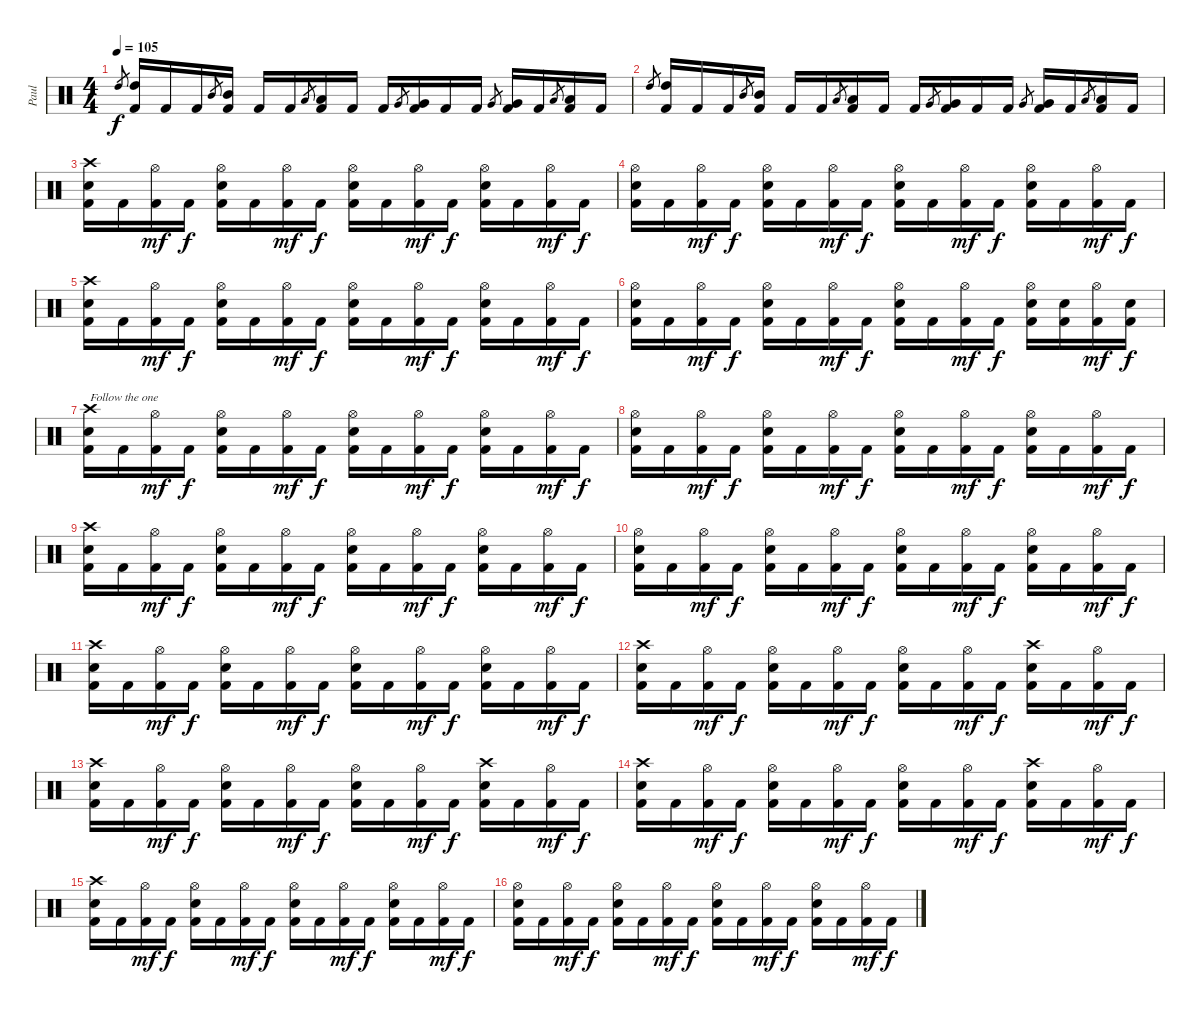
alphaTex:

\track ("Paul" "Paul") {instrument percussion}
\staff {score}
\articulation defaults
\ts (4 4)
\tempo 105
\clef neutral
\ks c "High Tom (hit)".8{gr dy f}
("High Tom (hit)" "Kick (hit) 2").16 "Kick (hit) 2".16 "Kick (hit) 2".16 "Mid Tom (hit)".8{gr} ("Mid Tom (hit)" "Kick (hit) 2").16 "Kick (hit) 2".16 "Kick (hit) 2".16 "Low Tom (hit)".8{gr} ("Low Tom (hit)" "Kick (hit) 2").16 "Kick (hit) 2".16 "Kick (hit) 2".16 "Very Low Tom (hit)".8{gr} ("Very Low Tom (hit)" "Kick (hit) 2").16 "Kick (hit) 2".16 "Kick (hit) 2".16 "Very Low Tom (hit)".8{gr} ("Very Low Tom (hit)" "Kick (hit) 2").16 "Kick (hit) 2".16 "Low Floor Tom (hit)".8{gr} ("Low Floor Tom (hit)" "Kick (hit) 2").16 "Kick (hit) 2".16 |
"High Tom (hit)".8{gr} ("High Tom (hit)" "Kick (hit) 2").16 "Kick (hit) 2".16 "Kick (hit) 2".16 "Mid Tom (hit)".8{gr} ("Mid Tom (hit)" "Kick (hit) 2").16 "Kick (hit) 2".16 "Kick (hit) 2".16 "Low Tom (hit)".8{gr} ("Low Tom (hit)" "Kick (hit) 2").16 "Kick (hit) 2".16 "Kick (hit) 2".16 "Very Low Tom (hit)".8{gr} ("Very Low Tom (hit)" "Kick (hit) 2").16 "Kick (hit) 2".16 "Kick (hit) 2".16 "Very Low Tom (hit)".8{gr} ("Very Low Tom (hit)" "Kick (hit) 2").16 "Kick (hit) 2".16 "Low Floor Tom (hit)".8{gr} ("Low Floor Tom (hit)" "Kick (hit) 2").16 "Kick (hit) 2".16 |
("Crash high (hit)" "Electric Snare (hit)" "Kick (hit) 2").16 "Kick (hit) 2".16 ("Hi-Hat (open)" "Kick (hit) 2").16{dy mf} "Kick (hit) 2".16{dy f} ("Hi-Hat (open)" "Electric Snare (hit)" "Kick (hit) 2").16 "Kick (hit) 2".16 ("Hi-Hat (open)" "Kick (hit) 2").16{dy mf} "Kick (hit) 2".16{dy f} ("Hi-Hat (open)" "Electric Snare (hit)" "Kick (hit) 2").16 "Kick (hit) 2".16 ("Hi-Hat (open)" "Kick (hit) 2").16{dy mf} "Kick (hit) 2".16{dy f} ("Hi-Hat (open)" "Electric Snare (hit)" "Kick (hit) 2").16 "Kick (hit) 2".16 ("Hi-Hat (open)" "Kick (hit) 2").16{dy mf} "Kick (hit) 2".16{dy f} |
("Hi-Hat (open)" "Electric Snare (hit)" "Kick (hit) 2").16 "Kick (hit) 2".16 ("Hi-Hat (open)" "Kick (hit) 2").16{dy mf} "Kick (hit) 2".16{dy f} ("Hi-Hat (open)" "Electric Snare (hit)" "Kick (hit) 2").16 "Kick (hit) 2".16 ("Hi-Hat (open)" "Kick (hit) 2").16{dy mf} "Kick (hit) 2".16{dy f} ("Hi-Hat (open)" "Electric Snare (hit)" "Kick (hit) 2").16 "Kick (hit) 2".16 ("Hi-Hat (open)" "Kick (hit) 2").16{dy mf} "Kick (hit) 2".16{dy f} ("Hi-Hat (open)" "Electric Snare (hit)" "Kick (hit) 2").16 "Kick (hit) 2".16 ("Hi-Hat (open)" "Kick (hit) 2").16{dy mf} "Kick (hit) 2".16{dy f} |
("Crash high (hit)" "Electric Snare (hit)" "Kick (hit) 2").16 "Kick (hit) 2".16 ("Hi-Hat (open)" "Kick (hit) 2").16{dy mf} "Kick (hit) 2".16{dy f} ("Hi-Hat (open)" "Electric Snare (hit)" "Kick (hit) 2").16 "Kick (hit) 2".16 ("Hi-Hat (open)" "Kick (hit) 2").16{dy mf} "Kick (hit) 2".16{dy f} ("Hi-Hat (open)" "Electric Snare (hit)" "Kick (hit) 2").16 "Kick (hit) 2".16 ("Hi-Hat (open)" "Kick (hit) 2").16{dy mf} "Kick (hit) 2".16{dy f} ("Hi-Hat (open)" "Electric Snare (hit)" "Kick (hit) 2").16 "Kick (hit) 2".16 ("Hi-Hat (open)" "Kick (hit) 2").16{dy mf} "Kick (hit) 2".16{dy f} |
("Hi-Hat (open)" "Electric Snare (hit)" "Kick (hit) 2").16 "Kick (hit) 2".16 ("Hi-Hat (open)" "Kick (hit) 2").16{dy mf} "Kick (hit) 2".16{dy f} ("Hi-Hat (open)" "Electric Snare (hit)" "Kick (hit) 2").16 "Kick (hit) 2".16 ("Hi-Hat (open)" "Kick (hit) 2").16{dy mf} "Kick (hit) 2".16{dy f} ("Hi-Hat (open)" "Electric Snare (hit)" "Kick (hit) 2").16 "Kick (hit) 2".16 ("Hi-Hat (open)" "Kick (hit) 2").16{dy mf} "Kick (hit) 2".16{dy f} ("Hi-Hat (open)" "Electric Snare (hit)" "Kick (hit) 2").16 ("Electric Snare (hit)" "Kick (hit) 2").16 ("Hi-Hat (open)" "Kick (hit) 2").16{dy mf} ("Electric Snare (hit)" "Kick (hit) 2").16{dy f} |
("Crash high (hit)" "Electric Snare (hit)" "Kick (hit) 2").16{txt "Follow the one"} "Kick (hit) 2".16 ("Hi-Hat (open)" "Kick (hit) 2").16{dy mf} "Kick (hit) 2".16{dy f} ("Hi-Hat (open)" "Electric Snare (hit)" "Kick (hit) 2").16 "Kick (hit) 2".16 ("Hi-Hat (open)" "Kick (hit) 2").16{dy mf} "Kick (hit) 2".16{dy f} ("Hi-Hat (open)" "Electric Snare (hit)" "Kick (hit) 2").16 "Kick (hit) 2".16 ("Hi-Hat (open)" "Kick (hit) 2").16{dy mf} "Kick (hit) 2".16{dy f} ("Hi-Hat (open)" "Electric Snare (hit)" "Kick (hit) 2").16 "Kick (hit) 2".16 ("Hi-Hat (open)" "Kick (hit) 2").16{dy mf} "Kick (hit) 2".16{dy f} |
("Hi-Hat (open)" "Electric Snare (hit)" "Kick (hit) 2").16 "Kick (hit) 2".16 ("Hi-Hat (open)" "Kick (hit) 2").16{dy mf} "Kick (hit) 2".16{dy f} ("Hi-Hat (open)" "Electric Snare (hit)" "Kick (hit) 2").16 "Kick (hit) 2".16 ("Hi-Hat (open)" "Kick (hit) 2").16{dy mf} "Kick (hit) 2".16{dy f} ("Hi-Hat (open)" "Electric Snare (hit)" "Kick (hit) 2").16 "Kick (hit) 2".16 ("Hi-Hat (open)" "Kick (hit) 2").16{dy mf} "Kick (hit) 2".16{dy f} ("Hi-Hat (open)" "Electric Snare (hit)" "Kick (hit) 2").16 "Kick (hit) 2".16 ("Hi-Hat (open)" "Kick (hit) 2").16{dy mf} "Kick (hit) 2".16{dy f} |
("Crash high (hit)" "Electric Snare (hit)" "Kick (hit) 2").16 "Kick (hit) 2".16 ("Hi-Hat (open)" "Kick (hit) 2").16{dy mf} "Kick (hit) 2".16{dy f} ("Hi-Hat (open)" "Electric Snare (hit)" "Kick (hit) 2").16 "Kick (hit) 2".16 ("Hi-Hat (open)" "Kick (hit) 2").16{dy mf} "Kick (hit) 2".16{dy f} ("Hi-Hat (open)" "Electric Snare (hit)" "Kick (hit) 2").16 "Kick (hit) 2".16 ("Hi-Hat (open)" "Kick (hit) 2").16{dy mf} "Kick (hit) 2".16{dy f} ("Hi-Hat (open)" "Electric Snare (hit)" "Kick (hit) 2").16 "Kick (hit) 2".16 ("Hi-Hat (open)" "Kick (hit) 2").16{dy mf} "Kick (hit) 2".16{dy f} |
("Hi-Hat (open)" "Electric Snare (hit)" "Kick (hit) 2").16 "Kick (hit) 2".16 ("Hi-Hat (open)" "Kick (hit) 2").16{dy mf} "Kick (hit) 2".16{dy f} ("Hi-Hat (open)" "Electric Snare (hit)" "Kick (hit) 2").16 "Kick (hit) 2".16 ("Hi-Hat (open)" "Kick (hit) 2").16{dy mf} "Kick (hit) 2".16{dy f} ("Hi-Hat (open)" "Electric Snare (hit)" "Kick (hit) 2").16 "Kick (hit) 2".16 ("Hi-Hat (open)" "Kick (hit) 2").16{dy mf} "Kick (hit) 2".16{dy f} ("Hi-Hat (open)" "Electric Snare (hit)" "Kick (hit) 2").16 "Kick (hit) 2".16 ("Hi-Hat (open)" "Kick (hit) 2").16{dy mf} "Kick (hit) 2".16{dy f} |
("Crash high (hit)" "Electric Snare (hit)" "Kick (hit) 2").16 "Kick (hit) 2".16 ("Hi-Hat (open)" "Kick (hit) 2").16{dy mf} "Kick (hit) 2".16{dy f} ("Hi-Hat (open)" "Electric Snare (hit)" "Kick (hit) 2").16 "Kick (hit) 2".16 ("Hi-Hat (open)" "Kick (hit) 2").16{dy mf} "Kick (hit) 2".16{dy f} ("Hi-Hat (open)" "Electric Snare (hit)" "Kick (hit) 2").16 "Kick (hit) 2".16 ("Hi-Hat (open)" "Kick (hit) 2").16{dy mf} "Kick (hit) 2".16{dy f} ("Hi-Hat (open)" "Electric Snare (hit)" "Kick (hit) 2").16 "Kick (hit) 2".16 ("Hi-Hat (open)" "Kick (hit) 2").16{dy mf} "Kick (hit) 2".16{dy f} |
("Crash high (hit)" "Electric Snare (hit)" "Kick (hit) 2").16 "Kick (hit) 2".16 ("Hi-Hat (open)" "Kick (hit) 2").16{dy mf} "Kick (hit) 2".16{dy f} ("Hi-Hat (open)" "Electric Snare (hit)" "Kick (hit) 2").16 "Kick (hit) 2".16 ("Hi-Hat (open)" "Kick (hit) 2").16{dy mf} "Kick (hit) 2".16{dy f} ("Hi-Hat (open)" "Electric Snare (hit)" "Kick (hit) 2").16 "Kick (hit) 2".16 ("Hi-Hat (open)" "Kick (hit) 2").16{dy mf} "Kick (hit) 2".16{dy f} ("Crash high (hit)" "Electric Snare (hit)" "Kick (hit) 2").16 "Kick (hit) 2".16 ("Hi-Hat (open)" "Kick (hit) 2").16{dy mf} "Kick (hit) 2".16{dy f} |
("Crash high (hit)" "Electric Snare (hit)" "Kick (hit) 2").16 "Kick (hit) 2".16 ("Hi-Hat (open)" "Kick (hit) 2").16{dy mf} "Kick (hit) 2".16{dy f} ("Hi-Hat (open)" "Electric Snare (hit)" "Kick (hit) 2").16 "Kick (hit) 2".16 ("Hi-Hat (open)" "Kick (hit) 2").16{dy mf} "Kick (hit) 2".16{dy f} ("Hi-Hat (open)" "Electric Snare (hit)" "Kick (hit) 2").16 "Kick (hit) 2".16 ("Hi-Hat (open)" "Kick (hit) 2").16{dy mf} "Kick (hit) 2".16{dy f} ("Crash high (hit)" "Electric Snare (hit)" "Kick (hit) 2").16 "Kick (hit) 2".16 ("Hi-Hat (open)" "Kick (hit) 2").16{dy mf} "Kick (hit) 2".16{dy f} |
("Crash high (hit)" "Electric Snare (hit)" "Kick (hit) 2").16 "Kick (hit) 2".16 ("Hi-Hat (open)" "Kick (hit) 2").16{dy mf} "Kick (hit) 2".16{dy f} ("Hi-Hat (open)" "Electric Snare (hit)" "Kick (hit) 2").16 "Kick (hit) 2".16 ("Hi-Hat (open)" "Kick (hit) 2").16{dy mf} "Kick (hit) 2".16{dy f} ("Hi-Hat (open)" "Electric Snare (hit)" "Kick (hit) 2").16 "Kick (hit) 2".16 ("Hi-Hat (open)" "Kick (hit) 2").16{dy mf} "Kick (hit) 2".16{dy f} ("Crash high (hit)" "Electric Snare (hit)" "Kick (hit) 2").16 "Kick (hit) 2".16 ("Hi-Hat (open)" "Kick (hit) 2").16{dy mf} "Kick (hit) 2".16{dy f} |
("Crash high (hit)" "Electric Snare (hit)" "Kick (hit) 2").16 "Kick (hit) 2".16 ("Hi-Hat (open)" "Kick (hit) 2").16{dy mf} "Kick (hit) 2".16{dy f} ("Hi-Hat (open)" "Electric Snare (hit)" "Kick (hit) 2").16 "Kick (hit) 2".16 ("Hi-Hat (open)" "Kick (hit) 2").16{dy mf} "Kick (hit) 2".16{dy f} ("Hi-Hat (open)" "Electric Snare (hit)" "Kick (hit) 2").16 "Kick (hit) 2".16 ("Hi-Hat (open)" "Kick (hit) 2").16{dy mf} "Kick (hit) 2".16{dy f} ("Hi-Hat (open)" "Electric Snare (hit)" "Kick (hit) 2").16 "Kick (hit) 2".16 ("Hi-Hat (open)" "Kick (hit) 2").16{dy mf} "Kick (hit) 2".16{dy f} |
("Hi-Hat (open)" "Electric Snare (hit)" "Kick (hit) 2").16 "Kick (hit) 2".16 ("Hi-Hat (open)" "Kick (hit) 2").16{dy mf} "Kick (hit) 2".16{dy f} ("Hi-Hat (open)" "Electric Snare (hit)" "Kick (hit) 2").16 "Kick (hit) 2".16 ("Hi-Hat (open)" "Kick (hit) 2").16{dy mf} "Kick (hit) 2".16{dy f} ("Hi-Hat (open)" "Electric Snare (hit)" "Kick (hit) 2").16 "Kick (hit) 2".16 ("Hi-Hat (open)" "Kick (hit) 2").16{dy mf} "Kick (hit) 2".16{dy f} ("Hi-Hat (open)" "Electric Snare (hit)" "Kick (hit) 2").16 "Kick (hit) 2".16 ("Hi-Hat (open)" "Kick (hit) 2").16{dy mf} "Kick (hit) 2".16{dy f}
